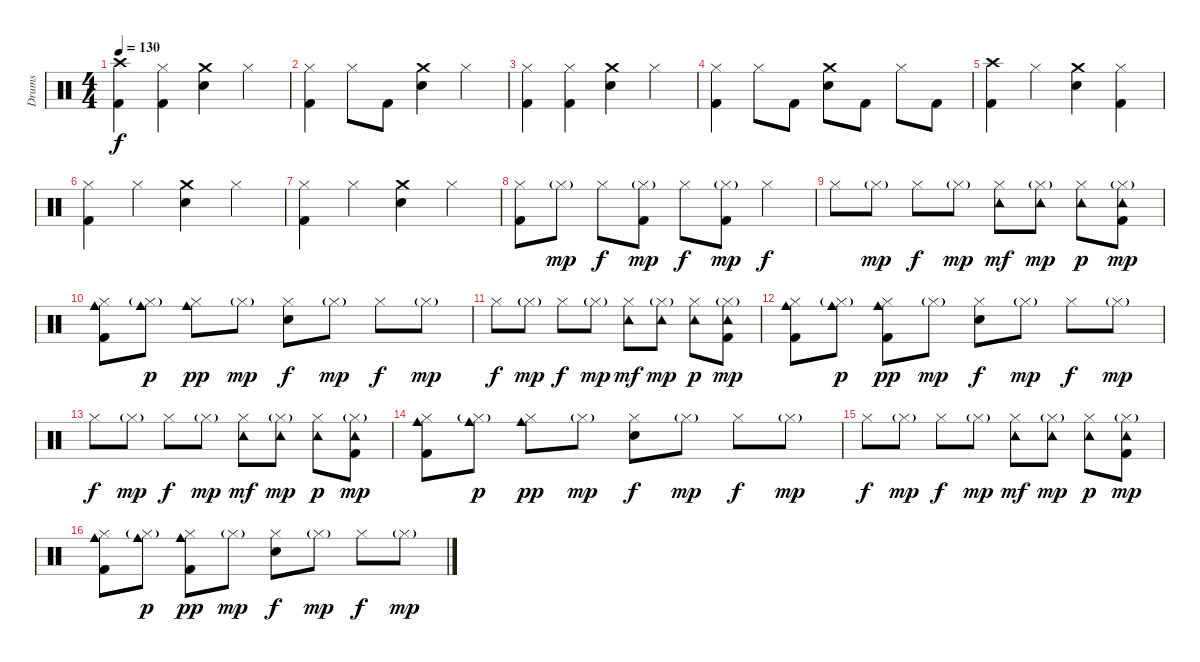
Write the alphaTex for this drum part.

\track ("Drums" "Drums") {instrument percussion}
\staff {score}
\articulation defaults
\ts (4 4)
\tempo 130
\clef neutral
\ks c
("Crash high (hit)" "Kick (hit) 2").4{dy f} ("Hi-Hat (closed)" "Kick (hit) 2").4 ("Crash medium (hit)" "Snare (hit) 2").4 "Hi-Hat (closed)".4 |
("Hi-Hat (closed)" "Kick (hit) 2").4 "Hi-Hat (closed)".8 "Kick (hit) 2".8 ("Crash medium (hit)" "Snare (hit) 2").4 "Hi-Hat (closed)".4 |
("Hi-Hat (closed)" "Kick (hit) 2").4 ("Hi-Hat (closed)" "Kick (hit) 2").4 ("Crash medium (hit)" "Snare (hit) 2").4 "Hi-Hat (closed)".4 |
("Hi-Hat (closed)" "Kick (hit) 2").4 "Hi-Hat (closed)".8 "Kick (hit) 2".8 ("Crash medium (hit)" "Snare (hit) 2").8 "Kick (hit) 2".8 "Hi-Hat (closed)".8 "Kick (hit) 2".8 |
("Crash high (hit)" "Kick (hit) 2").4 "Hi-Hat (closed)".4 ("Crash medium (hit)" "Snare (hit) 2").4 ("Hi-Hat (closed)" "Kick (hit) 2").4 |
("Hi-Hat (closed)" "Kick (hit) 2").4 "Hi-Hat (closed)".4 ("Crash medium (hit)" "Snare (hit) 2").4 "Hi-Hat (closed)".4 |
("Hi-Hat (closed)" "Kick (hit) 2").4 "Hi-Hat (closed)".4 ("Crash medium (hit)" "Snare (hit) 2").4 "Hi-Hat (closed)".4 |
("Hi-Hat (closed)" "Kick (hit) 2").8 "Hi-Hat (closed)"{g}.8{dy mp} "Hi-Hat (closed)".8{dy f} ("Hi-Hat (closed)"{g} "Kick (hit) 2").8{dy mp} "Hi-Hat (closed)".8{dy f} ("Hi-Hat (closed)"{g} "Kick (hit) 2").8{dy mp} "Hi-Hat (closed)".4{dy f} |
"Hi-Hat (closed)".8 "Hi-Hat (closed)"{g}.8{dy mp} "Hi-Hat (closed)".8{dy f} "Hi-Hat (closed)"{g}.8{dy mp} ("Tambourine (hit)" "Hi-Hat (closed)").8{dy mf} ("Tambourine (hit)" "Hi-Hat (closed)"{g}).8{dy mp} ("Tambourine (hit)" "Hi-Hat (closed)").8{dy p} ("Tambourine (hit)" "Hi-Hat (closed)"{g} "Kick (hit) 2").8{dy mp} |
("Hi-Hat (closed)" "Cowbell medium (hit)" "Kick (hit) 2").8 ("Hi-Hat (closed)"{g} "Cowbell medium (hit)").8{dy p} ("Hi-Hat (closed)" "Cowbell medium (hit)").8{dy pp} "Hi-Hat (closed)"{g}.8{dy mp} ("Hi-Hat (closed)" "Snare (hit) 2").8{dy f} "Hi-Hat (closed)"{g}.8{dy mp} "Hi-Hat (closed)".8{dy f} "Hi-Hat (closed)"{g}.8{dy mp} |
"Hi-Hat (closed)".8{dy f} "Hi-Hat (closed)"{g}.8{dy mp} "Hi-Hat (closed)".8{dy f} "Hi-Hat (closed)"{g}.8{dy mp} ("Tambourine (hit)" "Hi-Hat (closed)").8{dy mf} ("Tambourine (hit)" "Hi-Hat (closed)"{g}).8{dy mp} ("Tambourine (hit)" "Hi-Hat (closed)").8{dy p} ("Tambourine (hit)" "Hi-Hat (closed)"{g} "Kick (hit) 2").8{dy mp} |
("Hi-Hat (closed)" "Cowbell medium (hit)" "Kick (hit) 2").8 ("Hi-Hat (closed)"{g} "Cowbell medium (hit)").8{dy p} ("Hi-Hat (closed)" "Cowbell medium (hit)" "Kick (hit) 2").8{dy pp} "Hi-Hat (closed)"{g}.8{dy mp} ("Hi-Hat (closed)" "Snare (hit) 2").8{dy f} "Hi-Hat (closed)"{g}.8{dy mp} "Hi-Hat (closed)".8{dy f} "Hi-Hat (closed)"{g}.8{dy mp} |
"Hi-Hat (closed)".8{dy f} "Hi-Hat (closed)"{g}.8{dy mp} "Hi-Hat (closed)".8{dy f} "Hi-Hat (closed)"{g}.8{dy mp} ("Tambourine (hit)" "Hi-Hat (closed)").8{dy mf} ("Tambourine (hit)" "Hi-Hat (closed)"{g}).8{dy mp} ("Tambourine (hit)" "Hi-Hat (closed)").8{dy p} ("Tambourine (hit)" "Hi-Hat (closed)"{g} "Kick (hit) 2").8{dy mp} |
("Hi-Hat (closed)" "Cowbell medium (hit)" "Kick (hit) 2").8 ("Hi-Hat (closed)"{g} "Cowbell medium (hit)").8{dy p} ("Hi-Hat (closed)" "Cowbell medium (hit)").8{dy pp} "Hi-Hat (closed)"{g}.8{dy mp} ("Hi-Hat (closed)" "Snare (hit) 2").8{dy f} "Hi-Hat (closed)"{g}.8{dy mp} "Hi-Hat (closed)".8{dy f} "Hi-Hat (closed)"{g}.8{dy mp} |
"Hi-Hat (closed)".8{dy f} "Hi-Hat (closed)"{g}.8{dy mp} "Hi-Hat (closed)".8{dy f} "Hi-Hat (closed)"{g}.8{dy mp} ("Tambourine (hit)" "Hi-Hat (closed)").8{dy mf} ("Tambourine (hit)" "Hi-Hat (closed)"{g}).8{dy mp} ("Tambourine (hit)" "Hi-Hat (closed)").8{dy p} ("Tambourine (hit)" "Hi-Hat (closed)"{g} "Kick (hit) 2").8{dy mp} |
("Hi-Hat (closed)" "Cowbell medium (hit)" "Kick (hit) 2").8 ("Hi-Hat (closed)"{g} "Cowbell medium (hit)").8{dy p} ("Hi-Hat (closed)" "Cowbell medium (hit)" "Kick (hit) 2").8{dy pp} "Hi-Hat (closed)"{g}.8{dy mp} ("Hi-Hat (closed)" "Snare (hit) 2").8{dy f} "Hi-Hat (closed)"{g}.8{dy mp} "Hi-Hat (closed)".8{dy f} "Hi-Hat (closed)"{g}.8{dy mp}
